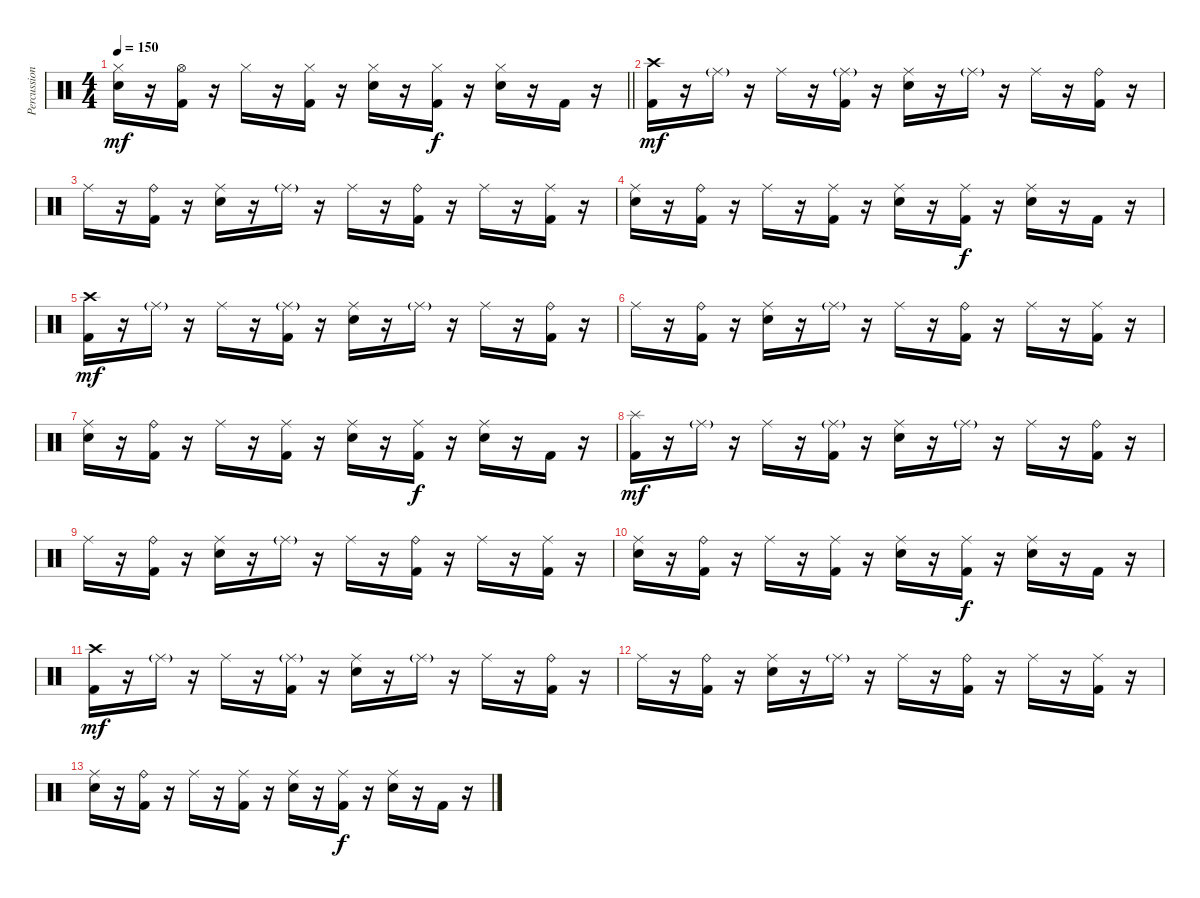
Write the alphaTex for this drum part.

\track ("Percussion" "Percussion") {instrument percussion}
\staff {score}
\articulation defaults
\ts (4 4)
\tempo 150
\clef neutral
\barLineRight lightlight
\ks c
("Hi-Hat (closed)" "Snare (hit) 2").16{dy mf} r.16 ("Hi-Hat (open)" "Kick (hit) 2").16 r.16 "Hi-Hat (closed)".16 r.16 ("Hi-Hat (closed)" "Kick (hit) 2").16 r.16 ("Hi-Hat (closed)" "Snare (hit) 2").16 r.16 ("Hi-Hat (closed)" "Kick (hit) 2").16{dy f} r.16 ("Hi-Hat (closed)" "Snare (hit) 2").16 r.16 "Kick (hit) 2".16 r.16 |
("Crash high (hit)" "Kick (hit) 2").16{dy mf} r.16 "Ride (middle)"{g}.16 r.16 "Ride (middle)".16 r.16 ("Ride (middle)"{g} "Kick (hit) 2").16 r.16 ("Ride (middle)" "Snare (hit) 2").16 r.16 "Ride (middle)"{g}.16 r.16 "Ride (middle)".16 r.16 ("Ride (bell)" "Kick (hit) 2").16 r.16 |
"Ride (middle)".16 r.16 ("Ride (bell)" "Kick (hit) 2").16 r.16 ("Ride (middle)" "Snare (hit) 2").16 r.16 "Ride (middle)"{g}.16 r.16 "Ride (middle)".16 r.16 ("Ride (bell)" "Kick (hit) 2").16 r.16 "Ride (middle)".16 r.16 ("Ride (middle)" "Kick (hit) 2").16 r.16 |
("Ride (middle)" "Snare (hit) 2").16 r.16 ("Ride (bell)" "Kick (hit) 2").16 r.16 "Ride (middle)".16 r.16 ("Ride (middle)" "Kick (hit) 2").16 r.16 ("Ride (middle)" "Snare (hit) 2").16 r.16 ("Ride (middle)" "Kick (hit) 2").16{dy f} r.16 ("Ride (middle)" "Snare (hit) 2").16 r.16 "Kick (hit) 2".16 r.16 |
("Crash high (hit)" "Kick (hit) 2").16{dy mf} r.16 "Ride (middle)"{g}.16 r.16 "Ride (middle)".16 r.16 ("Ride (middle)"{g} "Kick (hit) 2").16 r.16 ("Ride (middle)" "Snare (hit) 2").16 r.16 "Ride (middle)"{g}.16 r.16 "Ride (middle)".16 r.16 ("Ride (bell)" "Kick (hit) 2").16 r.16 |
"Ride (middle)".16 r.16 ("Ride (bell)" "Kick (hit) 2").16 r.16 ("Ride (middle)" "Snare (hit) 2").16 r.16 "Ride (middle)"{g}.16 r.16 "Ride (middle)".16 r.16 ("Ride (bell)" "Kick (hit) 2").16 r.16 "Ride (middle)".16 r.16 ("Ride (middle)" "Kick (hit) 2").16 r.16 |
("Ride (middle)" "Snare (hit) 2").16 r.16 ("Ride (bell)" "Kick (hit) 2").16 r.16 "Ride (middle)".16 r.16 ("Ride (middle)" "Kick (hit) 2").16 r.16 ("Ride (middle)" "Snare (hit) 2").16 r.16 ("Ride (middle)" "Kick (hit) 2").16{dy f} r.16 ("Ride (middle)" "Snare (hit) 2").16 r.16 "Kick (hit) 2".16 r.16 |
("Splash (hit)" "Kick (hit) 2").16{dy mf} r.16 "Ride (middle)"{g}.16 r.16 "Ride (middle)".16 r.16 ("Ride (middle)"{g} "Kick (hit) 2").16 r.16 ("Ride (middle)" "Snare (hit) 2").16 r.16 "Ride (middle)"{g}.16 r.16 "Ride (middle)".16 r.16 ("Ride (bell)" "Kick (hit) 2").16 r.16 |
"Ride (middle)".16 r.16 ("Ride (bell)" "Kick (hit) 2").16 r.16 ("Ride (middle)" "Snare (hit) 2").16 r.16 "Ride (middle)"{g}.16 r.16 "Ride (middle)".16 r.16 ("Ride (bell)" "Kick (hit) 2").16 r.16 "Ride (middle)".16 r.16 ("Ride (middle)" "Kick (hit) 2").16 r.16 |
("Ride (middle)" "Snare (hit) 2").16 r.16 ("Ride (bell)" "Kick (hit) 2").16 r.16 "Ride (middle)".16 r.16 ("Ride (middle)" "Kick (hit) 2").16 r.16 ("Ride (middle)" "Snare (hit) 2").16 r.16 ("Ride (middle)" "Kick (hit) 2").16{dy f} r.16 ("Ride (middle)" "Snare (hit) 2").16 r.16 "Kick (hit) 2".16 r.16 |
("Crash high (hit)" "Kick (hit) 2").16{dy mf} r.16 "Ride (middle)"{g}.16 r.16 "Ride (middle)".16 r.16 ("Ride (middle)"{g} "Kick (hit) 2").16 r.16 ("Ride (middle)" "Snare (hit) 2").16 r.16 "Ride (middle)"{g}.16 r.16 "Ride (middle)".16 r.16 ("Ride (bell)" "Kick (hit) 2").16 r.16 |
"Ride (middle)".16 r.16 ("Ride (bell)" "Kick (hit) 2").16 r.16 ("Ride (middle)" "Snare (hit) 2").16 r.16 "Ride (middle)"{g}.16 r.16 "Ride (middle)".16 r.16 ("Ride (bell)" "Kick (hit) 2").16 r.16 "Ride (middle)".16 r.16 ("Ride (middle)" "Kick (hit) 2").16 r.16 |
("Ride (middle)" "Snare (hit) 2").16 r.16 ("Ride (bell)" "Kick (hit) 2").16 r.16 "Ride (middle)".16 r.16 ("Ride (middle)" "Kick (hit) 2").16 r.16 ("Ride (middle)" "Snare (hit) 2").16 r.16 ("Ride (middle)" "Kick (hit) 2").16{dy f} r.16 ("Ride (middle)" "Snare (hit) 2").16 r.16 "Kick (hit) 2".16 r.16
